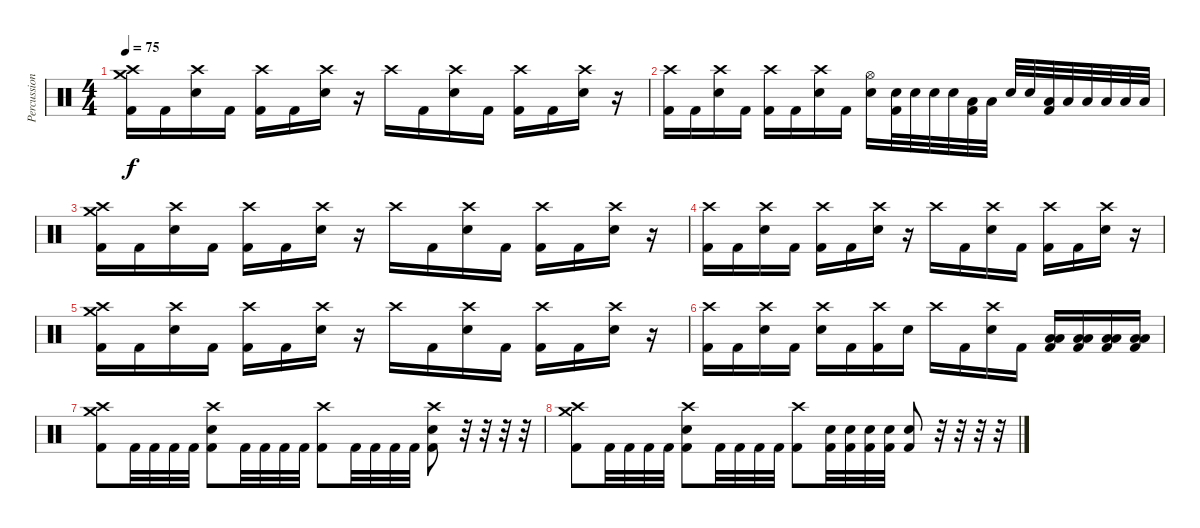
\track ("Percussion" "Percussion") {instrument percussion}
\staff {score}
\articulation defaults
\ts (4 4)
\tempo 75
\clef neutral
\ks c
("Crash medium (hit)" "Crash high (hit)" "Kick (hit) 2").16{dy f} "Kick (hit) 2".16 ("Crash high (hit)" "Electric Snare (hit)").16 "Kick (hit) 2".16 ("Crash high (hit)" "Kick (hit) 2").16 "Kick (hit) 2".16 ("Crash high (hit)" "Electric Snare (hit)").16 r.16 "Crash high (hit)".16 "Kick (hit) 2".16 ("Crash high (hit)" "Electric Snare (hit)").16 "Kick (hit) 2".16 ("Crash high (hit)" "Kick (hit) 2").16 "Kick (hit) 2".16 ("Crash high (hit)" "Electric Snare (hit)").16 r.16 |
("Crash high (hit)" "Kick (hit) 2").16 "Kick (hit) 2".16 ("Crash high (hit)" "Electric Snare (hit)").16 "Kick (hit) 2".16 ("Crash high (hit)" "Kick (hit) 2").16 "Kick (hit) 2".16 ("Crash high (hit)" "Electric Snare (hit)").16 "Kick (hit) 2".16 ("Hi-Hat (open)" "Electric Snare (hit)").16 ("Electric Snare (hit)" "Kick (hit) 2").32 "Electric Snare (hit)".32 "Electric Snare (hit)".32 "Electric Snare (hit)".32 ("Low Tom (hit)" "Kick (hit) 2").32 "Low Tom (hit)".32 "Electric Snare (hit)".32 "Electric Snare (hit)".32 ("Low Tom (hit)" "Kick (hit) 2").32 "Low Tom (hit)".32 "Low Floor Tom (hit)".32 "Low Floor Tom (hit)".32 "Low Floor Tom (hit)".32 "Low Floor Tom (hit)".32 |
("Crash medium (hit)" "Crash high (hit)" "Kick (hit) 2").16 "Kick (hit) 2".16 ("Crash high (hit)" "Electric Snare (hit)").16 "Kick (hit) 2".16 ("Crash high (hit)" "Kick (hit) 2").16 "Kick (hit) 2".16 ("Crash high (hit)" "Electric Snare (hit)").16 r.16 "Crash high (hit)".16 "Kick (hit) 2".16 ("Crash high (hit)" "Electric Snare (hit)").16 "Kick (hit) 2".16 ("Crash high (hit)" "Kick (hit) 2").16 "Kick (hit) 2".16 ("Crash high (hit)" "Electric Snare (hit)").16 r.16 |
("Crash high (hit)" "Kick (hit) 2").16 "Kick (hit) 2".16 ("Crash high (hit)" "Electric Snare (hit)").16 "Kick (hit) 2".16 ("Crash high (hit)" "Kick (hit) 2").16 "Kick (hit) 2".16 ("Crash high (hit)" "Electric Snare (hit)").16 r.16 "Crash high (hit)".16 "Kick (hit) 2".16 ("Crash high (hit)" "Electric Snare (hit)").16 "Kick (hit) 2".16 ("Crash high (hit)" "Kick (hit) 2").16 "Kick (hit) 2".16 ("Crash high (hit)" "Electric Snare (hit)").16 r.16 |
("Crash medium (hit)" "Crash high (hit)" "Kick (hit) 2").16 "Kick (hit) 2".16 ("Crash high (hit)" "Electric Snare (hit)").16 "Kick (hit) 2".16 ("Crash high (hit)" "Kick (hit) 2").16 "Kick (hit) 2".16 ("Crash high (hit)" "Electric Snare (hit)").16 r.16 "Crash high (hit)".16 "Kick (hit) 2".16 ("Crash high (hit)" "Electric Snare (hit)").16 "Kick (hit) 2".16 ("Crash high (hit)" "Kick (hit) 2").16 "Kick (hit) 2".16 ("Crash high (hit)" "Electric Snare (hit)").16 r.16 |
("Crash high (hit)" "Kick (hit) 2").16 "Kick (hit) 2".16 ("Crash high (hit)" "Electric Snare (hit)").16 "Kick (hit) 2".16 ("Crash high (hit)" "Electric Snare (hit)").16 "Kick (hit) 2".16 ("Crash high (hit)" "Kick (hit) 2").16 "Electric Snare (hit)".16 "Crash high (hit)".16 "Kick (hit) 2".16 ("Crash high (hit)" "Electric Snare (hit)").16 "Kick (hit) 2".16 ("Low Tom (hit)" "Low Floor Tom (hit)" "Kick (hit) 2").16 ("Low Tom (hit)" "Low Floor Tom (hit)" "Kick (hit) 2").16 ("Low Tom (hit)" "Low Floor Tom (hit)" "Kick (hit) 2").16 ("Low Tom (hit)" "Low Floor Tom (hit)" "Kick (hit) 2").16 |
("Crash medium (hit)" "Crash high (hit)" "Kick (hit) 2").8 "Kick (hit) 2".32 "Kick (hit) 2".32 "Kick (hit) 2".32 "Kick (hit) 2".32 ("Crash high (hit)" "Electric Snare (hit)" "Kick (hit) 2").8 "Kick (hit) 2".32 "Kick (hit) 2".32 "Kick (hit) 2".32 "Kick (hit) 2".32 ("Crash high (hit)" "Kick (hit) 2").8 "Kick (hit) 2".32 "Kick (hit) 2".32 "Kick (hit) 2".32 "Kick (hit) 2".32 ("Crash high (hit)" "Electric Snare (hit)" "Kick (hit) 2").8 r.32 r.32 r.32 r.32 |
("Crash medium (hit)" "Crash high (hit)" "Kick (hit) 2").8 "Kick (hit) 2".32 "Kick (hit) 2".32 "Kick (hit) 2".32 "Kick (hit) 2".32 ("Crash high (hit)" "Electric Snare (hit)" "Kick (hit) 2").8 "Kick (hit) 2".32 "Kick (hit) 2".32 "Kick (hit) 2".32 "Kick (hit) 2".32 ("Crash high (hit)" "Kick (hit) 2").8 ("Electric Snare (hit)" "Kick (hit) 2").32 ("Electric Snare (hit)" "Kick (hit) 2").32 ("Electric Snare (hit)" "Kick (hit) 2").32 ("Electric Snare (hit)" "Kick (hit) 2").32 ("Electric Snare (hit)" "Kick (hit) 2").8 r.32 r.32 r.32 r.32
